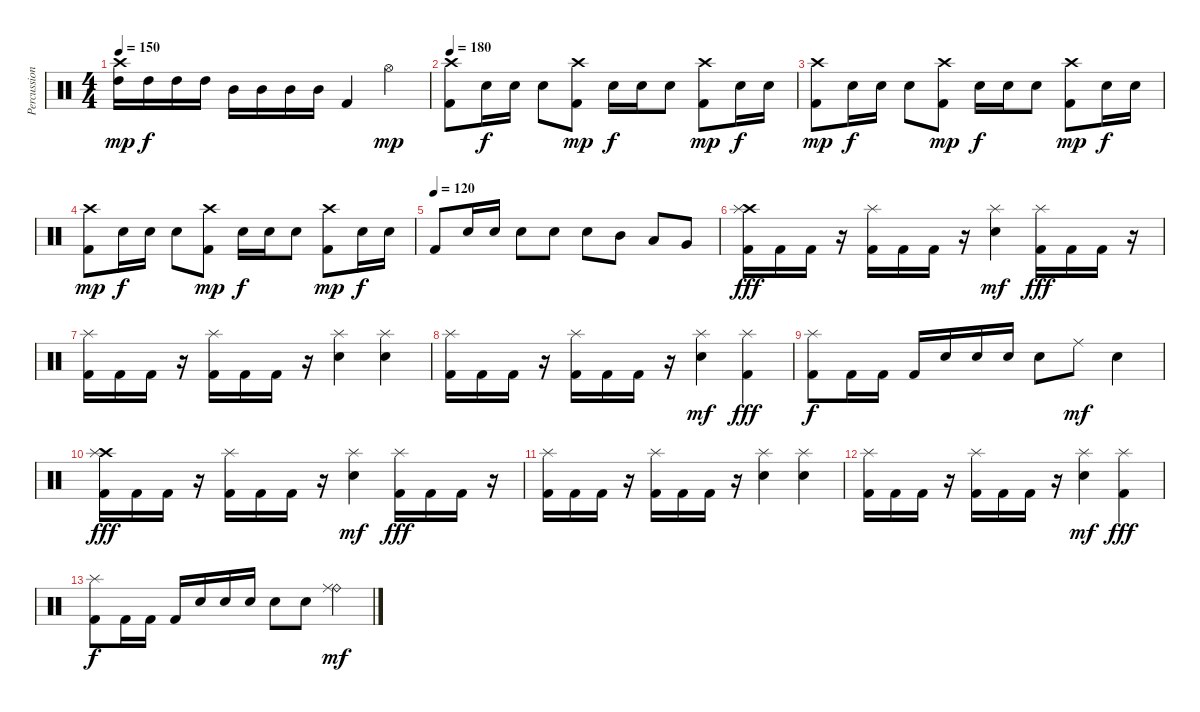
\track ("Percussion" "Percussion") {instrument percussion}
\staff {score}
\articulation defaults
\ts (4 4)
\tempo 150
\clef neutral
\ks c
("Crash high (hit)" "High Tom (hit)").16{dy mp} "High Tom (hit)".16{dy f} "High Tom (hit)".16 "High Tom (hit)".16 "Mid Tom (hit)".16 "Mid Tom (hit)".16 "Mid Tom (hit)".16 "Mid Tom (hit)".16 "Kick (hit) 2".4 "Hi-Hat (open)".4{dy mp} |
\tempo 180
("Crash high (hit)" "Kick (hit) 2").8 "Electric Snare (hit)".16{dy f} "Electric Snare (hit)".16 "Electric Snare (hit)".8 ("Crash high (hit)" "Kick (hit) 2").8{dy mp} "Electric Snare (hit)".16{dy f} "Electric Snare (hit)".16 "Electric Snare (hit)".8 ("Crash high (hit)" "Kick (hit) 2").8{dy mp} "Electric Snare (hit)".16{dy f} "Electric Snare (hit)".16 |
("Crash high (hit)" "Kick (hit) 2").8{dy mp} "Electric Snare (hit)".16{dy f} "Electric Snare (hit)".16 "Electric Snare (hit)".8 ("Crash high (hit)" "Kick (hit) 2").8{dy mp} "Electric Snare (hit)".16{dy f} "Electric Snare (hit)".16 "Electric Snare (hit)".8 ("Crash high (hit)" "Kick (hit) 2").8{dy mp} "Electric Snare (hit)".16{dy f} "Electric Snare (hit)".16 |
("Crash high (hit)" "Kick (hit) 2").8{dy mp} "Electric Snare (hit)".16{dy f} "Electric Snare (hit)".16 "Electric Snare (hit)".8 ("Crash high (hit)" "Kick (hit) 2").8{dy mp} "Electric Snare (hit)".16{dy f} "Electric Snare (hit)".16 "Electric Snare (hit)".8 ("Crash high (hit)" "Kick (hit) 2").8{dy mp} "Electric Snare (hit)".16{dy f} "Electric Snare (hit)".16 |
\tempo (120)
"Kick (hit) 2".8 "Electric Snare (hit)".16 "Electric Snare (hit)".16 "Electric Snare (hit)".8 "Electric Snare (hit)".8 "Electric Snare (hit)".8 "Mid Tom (hit)".8 "Low Tom (hit)".8 "Very Low Tom (hit)".8 |
("Crash high (hit)" "Splash (hit)" "Kick (hit) 2").16{dy fff} "Kick (hit) 2".16 "Kick (hit) 2".16 r.16 ("Splash (hit)" "Kick (hit) 2").16 "Kick (hit) 2".16 "Kick (hit) 2".16 r.16 ("Splash (hit)" "Electric Snare (hit)").4{dy mf} ("Splash (hit)" "Kick (hit) 2").16{dy fff} "Kick (hit) 2".16 "Kick (hit) 2".16 r.16 |
("Splash (hit)" "Kick (hit) 2").16 "Kick (hit) 2".16 "Kick (hit) 2".16 r.16 ("Splash (hit)" "Kick (hit) 2").16 "Kick (hit) 2".16 "Kick (hit) 2".16 r.16 ("Splash (hit)" "Electric Snare (hit)").4 ("Splash (hit)" "Electric Snare (hit)").4 |
("Splash (hit)" "Kick (hit) 2").16 "Kick (hit) 2".16 "Kick (hit) 2".16 r.16 ("Splash (hit)" "Kick (hit) 2").16 "Kick (hit) 2".16 "Kick (hit) 2".16 r.16 ("Splash (hit)" "Electric Snare (hit)").4{dy mf} ("Splash (hit)" "Kick (hit) 2").4{dy fff} |
("Splash (hit)" "Kick (hit) 2").8{dy f} "Kick (hit) 2".16 "Kick (hit) 2".16 "Kick (hit) 2".16 "Electric Snare (hit)".16 "Electric Snare (hit)".16 "Electric Snare (hit)".16 "Electric Snare (hit)".8 "Ride (middle)".8{dy mf} "Electric Snare (hit)".4 |
("Crash high (hit)" "Splash (hit)" "Kick (hit) 2").16{dy fff} "Kick (hit) 2".16 "Kick (hit) 2".16 r.16 ("Splash (hit)" "Kick (hit) 2").16 "Kick (hit) 2".16 "Kick (hit) 2".16 r.16 ("Splash (hit)" "Electric Snare (hit)").4{dy mf} ("Splash (hit)" "Kick (hit) 2").16{dy fff} "Kick (hit) 2".16 "Kick (hit) 2".16 r.16 |
("Splash (hit)" "Kick (hit) 2").16 "Kick (hit) 2".16 "Kick (hit) 2".16 r.16 ("Splash (hit)" "Kick (hit) 2").16 "Kick (hit) 2".16 "Kick (hit) 2".16 r.16 ("Splash (hit)" "Electric Snare (hit)").4 ("Splash (hit)" "Electric Snare (hit)").4 |
("Splash (hit)" "Kick (hit) 2").16 "Kick (hit) 2".16 "Kick (hit) 2".16 r.16 ("Splash (hit)" "Kick (hit) 2").16 "Kick (hit) 2".16 "Kick (hit) 2".16 r.16 ("Splash (hit)" "Electric Snare (hit)").4{dy mf} ("Splash (hit)" "Kick (hit) 2").4{dy fff} |
("Splash (hit)" "Kick (hit) 2").8{dy f} "Kick (hit) 2".16 "Kick (hit) 2".16 "Kick (hit) 2".16 "Electric Snare (hit)".16 "Electric Snare (hit)".16 "Electric Snare (hit)".16 "Electric Snare (hit)".8 "Electric Snare (hit)".8 ("Ride (bell)" "Ride (middle)").4{dy mf}
